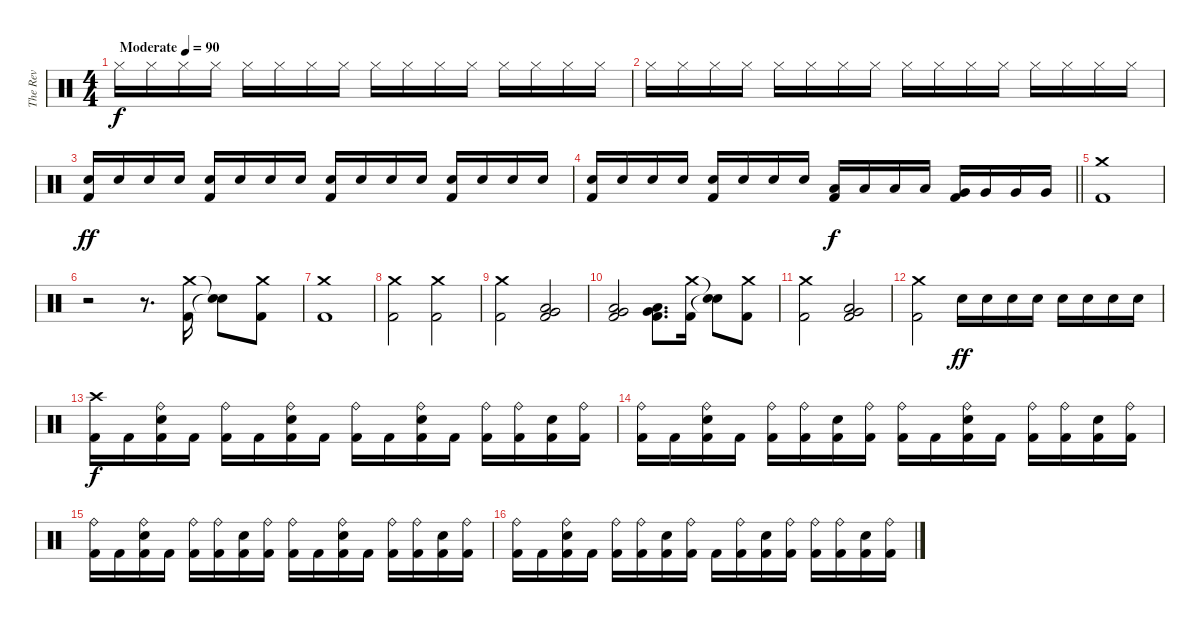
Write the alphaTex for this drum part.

\track ("The Rev" "The Rev") {instrument percussion}
\staff {score}
\articulation defaults
\ts (4 4)
\tempo (90 "Moderate")
\tempo 130
\tempo (90 "Moderate")
\clef neutral
\ks c "Hi-Hat (closed)".16{dy f} "Hi-Hat (closed)".16 "Hi-Hat (closed)".16 "Hi-Hat (closed)".16 "Hi-Hat (closed)".16 "Hi-Hat (closed)".16 "Hi-Hat (closed)".16 "Hi-Hat (closed)".16 "Hi-Hat (closed)".16 "Hi-Hat (closed)".16 "Hi-Hat (closed)".16 "Hi-Hat (closed)".16 "Hi-Hat (closed)".16 "Hi-Hat (closed)".16 "Hi-Hat (closed)".16 "Hi-Hat (closed)".16
|
"Hi-Hat (closed)".16 "Hi-Hat (closed)".16 "Hi-Hat (closed)".16 "Hi-Hat (closed)".16 "Hi-Hat (closed)".16 "Hi-Hat (closed)".16 "Hi-Hat (closed)".16 "Hi-Hat (closed)".16 "Hi-Hat (closed)".16 "Hi-Hat (closed)".16 "Hi-Hat (closed)".16 "Hi-Hat (closed)".16 "Hi-Hat (closed)".16 "Hi-Hat (closed)".16 "Hi-Hat (closed)".16 "Hi-Hat (closed)".16 |
("Electric Snare (hit)" "Kick (hit) 2").16{dy ff} "Electric Snare (hit)".16 "Electric Snare (hit)".16 "Electric Snare (hit)".16 ("Electric Snare (hit)" "Kick (hit) 2").16 "Electric Snare (hit)".16 "Electric Snare (hit)".16 "Electric Snare (hit)".16 ("Electric Snare (hit)" "Kick (hit) 2").16 "Electric Snare (hit)".16 "Electric Snare (hit)".16 "Electric Snare (hit)".16 ("Electric Snare (hit)" "Kick (hit) 2").16 "Electric Snare (hit)".16 "Electric Snare (hit)".16 "Electric Snare (hit)".16 |
\barLineRight lightlight
("Electric Snare (hit)" "Kick (hit) 2").16 "Electric Snare (hit)".16 "Electric Snare (hit)".16 "Electric Snare (hit)".16 ("Electric Snare (hit)" "Kick (hit) 2").16 "Electric Snare (hit)".16 "Electric Snare (hit)".16 "Electric Snare (hit)".16 ("Low Tom (hit)" "Kick (hit) 2").16{dy f} "Low Tom (hit)".16 "Low Tom (hit)".16 "Low Tom (hit)".16 ("Very Low Tom (hit)" "Kick (hit) 2").16 "Very Low Tom (hit)".16 "Very Low Tom (hit)".16 "Very Low Tom (hit)".16 |
("Crash medium (hit)" "Kick (hit) 2").1 |
r.2 r.8{d} ("Crash medium (hit)" "Kick (hit) 2").16 ("Snare (hit)"{t} "Snare (hit)"{t}).8 ("Crash medium (hit)" "Kick (hit) 2").8 |
("Crash medium (hit)" "Kick (hit) 2").1 |
("Crash medium (hit)" "Kick (hit) 2").2 ("Crash medium (hit)" "Kick (hit) 2").2 |
("Crash medium (hit)" "Kick (hit) 2").2 ("Very Low Tom (hit)" "Low Floor Tom (hit)" "Kick (hit) 2").2 |
("Very Low Tom (hit)" "Low Floor Tom (hit)" "Kick (hit) 2").2 ("Very Low Tom (hit)" "Low Floor Tom (hit)" "Kick (hit) 2").8{d} ("Crash medium (hit)" "Kick (hit) 2").16 ("Snare (hit)"{t} "Snare (hit)"{t}).8 ("Crash medium (hit)" "Kick (hit) 2").8 |
("Crash medium (hit)" "Kick (hit) 2").2 ("Very Low Tom (hit)" "Low Floor Tom (hit)" "Kick (hit) 2").2 |
("Crash medium (hit)" "Kick (hit) 2").2 "Electric Snare (hit)".16{dy ff} "Electric Snare (hit)".16 "Electric Snare (hit)".16 "Electric Snare (hit)".16 "Electric Snare (hit)".16 "Electric Snare (hit)".16 "Electric Snare (hit)".16 "Electric Snare (hit)".16 |
("Crash high (hit)" "Kick (hit) 2").16{dy f} "Kick (hit) 2".16 ("Ride (bell)" "Electric Snare (hit)" "Kick (hit) 2").16 "Kick (hit) 2".16 ("Ride (bell)" "Kick (hit) 2").16 "Kick (hit) 2".16 ("Ride (bell)" "Electric Snare (hit)" "Kick (hit) 2").16 "Kick (hit) 2".16 ("Ride (bell)" "Kick (hit) 2").16 "Kick (hit) 2".16 ("Ride (bell)" "Electric Snare (hit)" "Kick (hit) 2").16 "Kick (hit) 2".16 ("Ride (bell)" "Kick (hit) 2").16 ("Ride (bell)" "Kick (hit) 2").16 ("Electric Snare (hit)" "Kick (hit) 2").16 ("Ride (bell)" "Kick (hit) 2").16 |
("Ride (bell)" "Kick (hit) 2").16 "Kick (hit) 2".16 ("Ride (bell)" "Electric Snare (hit)" "Kick (hit) 2").16 "Kick (hit) 2".16 ("Ride (bell)" "Kick (hit) 2").16 ("Ride (bell)" "Kick (hit) 2").16 ("Electric Snare (hit)" "Kick (hit) 2").16 ("Ride (bell)" "Kick (hit) 2").16 ("Ride (bell)" "Kick (hit) 2").16 "Kick (hit) 2".16 ("Ride (bell)" "Electric Snare (hit)" "Kick (hit) 2").16 "Kick (hit) 2".16 ("Ride (bell)" "Kick (hit) 2").16 ("Ride (bell)" "Kick (hit) 2").16 ("Electric Snare (hit)" "Kick (hit) 2").16 ("Ride (bell)" "Kick (hit) 2").16 |
("Ride (bell)" "Kick (hit) 2").16 "Kick (hit) 2".16 ("Ride (bell)" "Electric Snare (hit)" "Kick (hit) 2").16 "Kick (hit) 2".16 ("Ride (bell)" "Kick (hit) 2").16 ("Ride (bell)" "Kick (hit) 2").16 ("Electric Snare (hit)" "Kick (hit) 2").16 ("Ride (bell)" "Kick (hit) 2").16 ("Ride (bell)" "Kick (hit) 2").16 "Kick (hit) 2".16 ("Ride (bell)" "Electric Snare (hit)" "Kick (hit) 2").16 "Kick (hit) 2".16 ("Ride (bell)" "Kick (hit) 2").16 ("Ride (bell)" "Kick (hit) 2").16 ("Electric Snare (hit)" "Kick (hit) 2").16 ("Ride (bell)" "Kick (hit) 2").16 |
("Ride (bell)" "Kick (hit) 2").16 "Kick (hit) 2".16 ("Ride (bell)" "Electric Snare (hit)" "Kick (hit) 2").16 "Kick (hit) 2".16 ("Ride (bell)" "Kick (hit) 2").16 ("Ride (bell)" "Kick (hit) 2").16 ("Electric Snare (hit)" "Kick (hit) 2").16 ("Ride (bell)" "Kick (hit) 2").16 "Kick (hit) 2".16 ("Ride (bell)" "Kick (hit) 2").16 ("Electric Snare (hit)" "Kick (hit) 2").16 ("Ride (bell)" "Kick (hit) 2").16 ("Ride (bell)" "Kick (hit) 2").16 ("Ride (bell)" "Kick (hit) 2").16 ("Electric Snare (hit)" "Kick (hit) 2").16 ("Ride (bell)" "Kick (hit) 2").16
